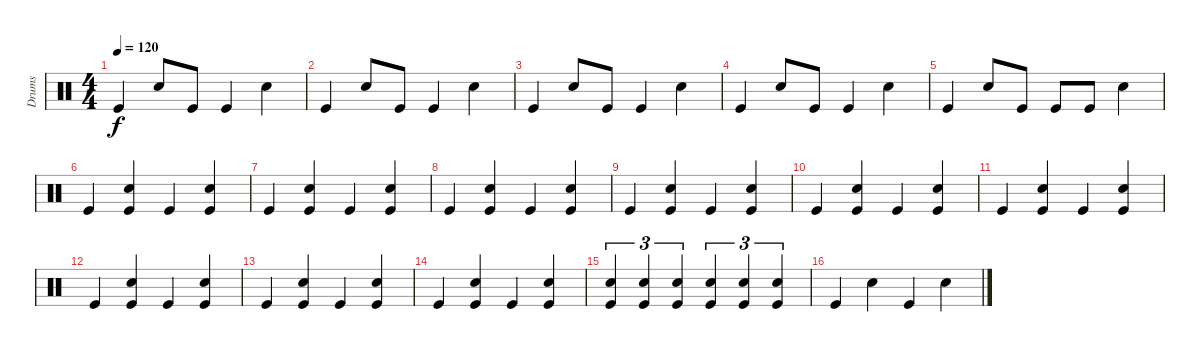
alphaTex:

\track ("Drums" "Drums") {instrument percussion}
\staff {score}
\articulation defaults
\ts (4 4)
\tempo 120
\clef neutral
\ks c "Kick (hit)".4{dy f} "Snare (hit) 2".8 "Kick (hit)".8 "Kick (hit)".4 "Snare (hit) 2".4
|
"Kick (hit)".4 "Snare (hit) 2".8 "Kick (hit)".8 "Kick (hit)".4 "Snare (hit) 2".4 |
"Kick (hit)".4 "Snare (hit) 2".8 "Kick (hit)".8 "Kick (hit)".4 "Snare (hit) 2".4 |
"Kick (hit)".4 "Snare (hit) 2".8 "Kick (hit)".8 "Kick (hit)".4 "Snare (hit) 2".4 |
"Kick (hit)".4 "Snare (hit) 2".8 "Kick (hit)".8 "Kick (hit)".8 "Kick (hit)".8 "Snare (hit) 2".4 |
"Kick (hit)".4 ("Snare (hit) 2" "Kick (hit)").4 "Kick (hit)".4 ("Snare (hit) 2" "Kick (hit)").4 |
"Kick (hit)".4 ("Snare (hit) 2" "Kick (hit)").4 "Kick (hit)".4 ("Snare (hit) 2" "Kick (hit)").4 |
"Kick (hit)".4 ("Snare (hit) 2" "Kick (hit)").4 "Kick (hit)".4 ("Snare (hit) 2" "Kick (hit)").4 |
"Kick (hit)".4 ("Snare (hit) 2" "Kick (hit)").4 "Kick (hit)".4 ("Snare (hit) 2" "Kick (hit)").4 |
"Kick (hit)".4 ("Snare (hit) 2" "Kick (hit)").4 "Kick (hit)".4 ("Snare (hit) 2" "Kick (hit)").4 |
"Kick (hit)".4 ("Snare (hit) 2" "Kick (hit)").4 "Kick (hit)".4 ("Snare (hit) 2" "Kick (hit)").4 |
"Kick (hit)".4 ("Snare (hit) 2" "Kick (hit)").4 "Kick (hit)".4 ("Snare (hit) 2" "Kick (hit)").4 |
"Kick (hit)".4 ("Snare (hit) 2" "Kick (hit)").4 "Kick (hit)".4 ("Snare (hit) 2" "Kick (hit)").4 |
"Kick (hit)".4 ("Snare (hit) 2" "Kick (hit)").4 "Kick (hit)".4 ("Snare (hit) 2" "Kick (hit)").4 |
("Snare (hit) 2" "Kick (hit)").4{tu (3 2)} ("Snare (hit) 2" "Kick (hit)").4{tu (3 2)} ("Snare (hit) 2" "Kick (hit)").4{tu (3 2)} ("Snare (hit) 2" "Kick (hit)").4{tu (3 2)} ("Snare (hit) 2" "Kick (hit)").4{tu (3 2)} ("Snare (hit) 2" "Kick (hit)").4{tu (3 2)} |
"Kick (hit)".4 "Snare (hit) 2".4 "Kick (hit)".4 "Snare (hit) 2".4
